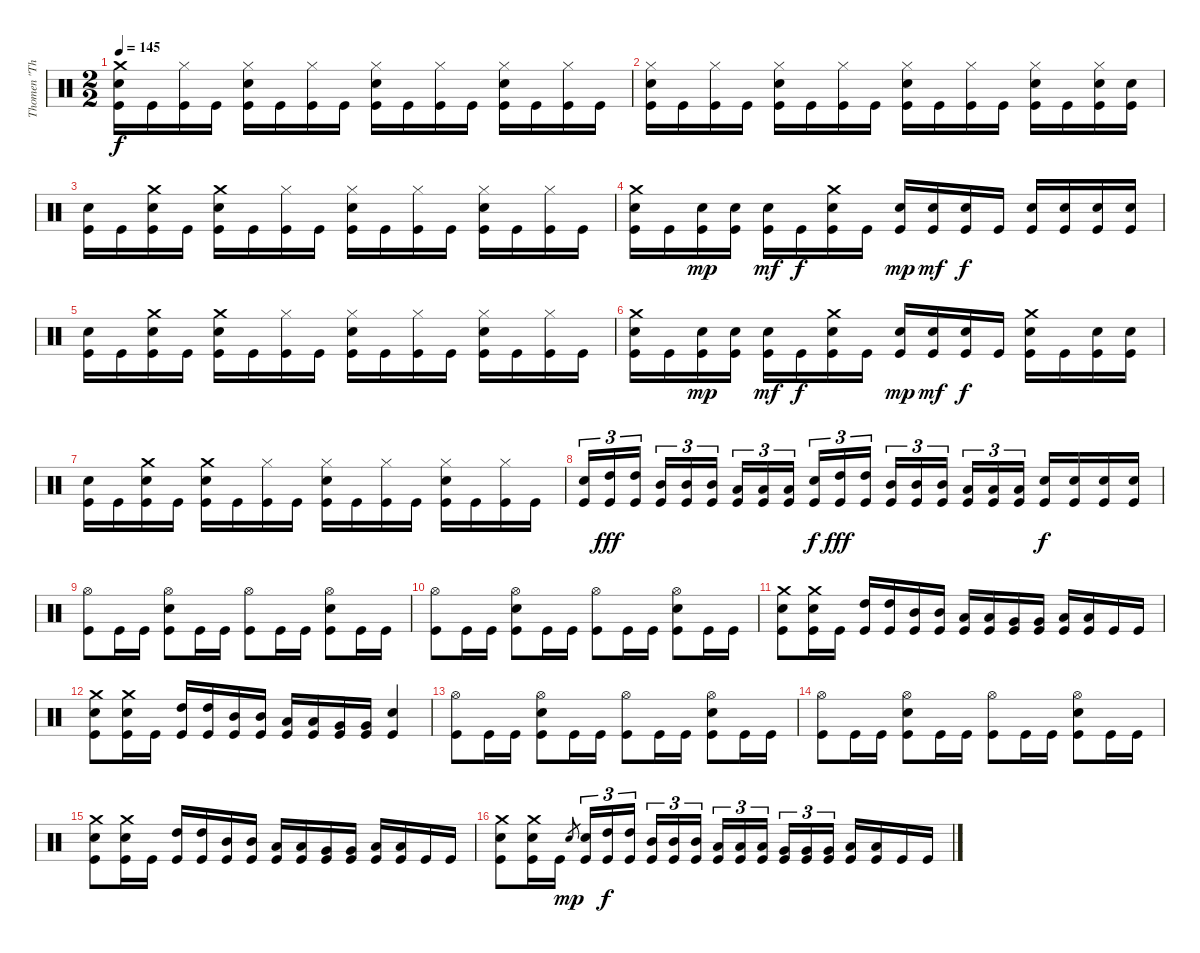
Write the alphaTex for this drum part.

\track ("Thomen \"The Omen\" Stauch" "Thomen \"Th") {instrument percussion}
\staff {score}
\articulation defaults
\ts (2 2)
\tempo 145
\clef neutral
\ks c
("Crash medium (hit)" "Snare (hit) 2" "Kick (hit)").16{dy f} "Kick (hit)".16 ("Hi-Hat (closed)" "Kick (hit)").16 "Kick (hit)".16 ("Hi-Hat (closed)" "Snare (hit) 2" "Kick (hit)").16 "Kick (hit)".16 ("Hi-Hat (closed)" "Kick (hit)").16 "Kick (hit)".16 ("Hi-Hat (closed)" "Snare (hit) 2" "Kick (hit)").16 "Kick (hit)".16 ("Hi-Hat (closed)" "Kick (hit)").16 "Kick (hit)".16 ("Hi-Hat (closed)" "Snare (hit) 2" "Kick (hit)").16 "Kick (hit)".16 ("Hi-Hat (closed)" "Kick (hit)").16 "Kick (hit)".16 |
("Hi-Hat (closed)" "Snare (hit) 2" "Kick (hit)").16 "Kick (hit)".16 ("Hi-Hat (closed)" "Kick (hit)").16 "Kick (hit)".16 ("Hi-Hat (closed)" "Snare (hit) 2" "Kick (hit)").16 "Kick (hit)".16 ("Hi-Hat (closed)" "Kick (hit)").16 "Kick (hit)".16 ("Hi-Hat (closed)" "Snare (hit) 2" "Kick (hit)").16 "Kick (hit)".16 ("Hi-Hat (closed)" "Kick (hit)").16 "Kick (hit)".16 ("Hi-Hat (closed)" "Snare (hit) 2" "Kick (hit)").16 "Kick (hit)".16 ("Hi-Hat (closed)" "Snare (hit) 2" "Kick (hit)").16 ("Snare (hit) 2" "Kick (hit)").16 |
("Snare (hit) 2" "Kick (hit)").16 "Kick (hit)".16 ("Crash medium (hit)" "Snare (hit) 2" "Kick (hit)").16 "Kick (hit)".16 ("Crash medium (hit)" "Snare (hit) 2" "Kick (hit)").16 "Kick (hit)".16 ("Hi-Hat (closed)" "Kick (hit)").16 "Kick (hit)".16 ("Hi-Hat (closed)" "Snare (hit) 2" "Kick (hit)").16 "Kick (hit)".16 ("Hi-Hat (closed)" "Kick (hit)").16 "Kick (hit)".16 ("Hi-Hat (closed)" "Snare (hit) 2" "Kick (hit)").16 "Kick (hit)".16 ("Hi-Hat (closed)" "Kick (hit)").16 "Kick (hit)".16 |
("Crash medium (hit)" "Snare (hit) 2" "Kick (hit)").16 "Kick (hit)".16 ("Snare (hit) 2" "Kick (hit)").16{dy mp} ("Snare (hit) 2" "Kick (hit)").16 ("Snare (hit) 2" "Kick (hit)").16{dy mf} "Kick (hit)".16{dy f} ("Crash medium (hit)" "Snare (hit) 2" "Kick (hit)").16 "Kick (hit)".16 ("Snare (hit) 2" "Kick (hit)").16{dy mp} ("Snare (hit) 2" "Kick (hit)").16{dy mf} ("Snare (hit) 2" "Kick (hit)").16{dy f} "Kick (hit)".16 ("Snare (hit) 2" "Kick (hit)").16 ("Snare (hit) 2" "Kick (hit)").16 ("Snare (hit) 2" "Kick (hit)").16 ("Snare (hit) 2" "Kick (hit)").16 |
("Snare (hit) 2" "Kick (hit)").16 "Kick (hit)".16 ("Crash medium (hit)" "Snare (hit) 2" "Kick (hit)").16 "Kick (hit)".16 ("Crash medium (hit)" "Snare (hit) 2" "Kick (hit)").16 "Kick (hit)".16 ("Hi-Hat (closed)" "Kick (hit)").16 "Kick (hit)".16 ("Hi-Hat (closed)" "Snare (hit) 2" "Kick (hit)").16 "Kick (hit)".16 ("Hi-Hat (closed)" "Kick (hit)").16 "Kick (hit)".16 ("Hi-Hat (closed)" "Snare (hit) 2" "Kick (hit)").16 "Kick (hit)".16 ("Hi-Hat (closed)" "Kick (hit)").16 "Kick (hit)".16 |
("Crash medium (hit)" "Snare (hit) 2" "Kick (hit)").16 "Kick (hit)".16 ("Snare (hit) 2" "Kick (hit)").16{dy mp} ("Snare (hit) 2" "Kick (hit)").16 ("Snare (hit) 2" "Kick (hit)").16{dy mf} "Kick (hit)".16{dy f} ("Crash medium (hit)" "Snare (hit) 2" "Kick (hit)").16 "Kick (hit)".16 ("Snare (hit) 2" "Kick (hit)").16{dy mp} ("Snare (hit) 2" "Kick (hit)").16{dy mf} ("Snare (hit) 2" "Kick (hit)").16{dy f} "Kick (hit)".16 ("Crash medium (hit)" "Snare (hit) 2" "Kick (hit)").16 "Kick (hit)".16 ("Snare (hit) 2" "Kick (hit)").16 ("Snare (hit) 2" "Kick (hit)").16 |
("Snare (hit) 2" "Kick (hit)").16 "Kick (hit)".16 ("Crash medium (hit)" "Snare (hit) 2" "Kick (hit)").16 "Kick (hit)".16 ("Crash medium (hit)" "Snare (hit) 2" "Kick (hit)").16 "Kick (hit)".16 ("Hi-Hat (closed)" "Kick (hit)").16 "Kick (hit)".16 ("Hi-Hat (closed)" "Snare (hit) 2" "Kick (hit)").16 "Kick (hit)".16 ("Hi-Hat (closed)" "Kick (hit)").16 "Kick (hit)".16 ("Hi-Hat (closed)" "Snare (hit) 2" "Kick (hit)").16 "Kick (hit)".16 ("Hi-Hat (closed)" "Kick (hit)").16 "Kick (hit)".16 |
("Snare (hit) 2" "Kick (hit)").16{tu (3 2)} ("High Tom (hit)" "Kick (hit)").16{tu (3 2) dy fff} ("High Tom (hit)" "Kick (hit)").16{tu (3 2)} ("Mid Tom (hit)" "Kick (hit)").16{tu (3 2)} ("Mid Tom (hit)" "Kick (hit)").16{tu (3 2)} ("Mid Tom (hit)" "Kick (hit)").16{tu (3 2)} ("Low Tom (hit)" "Kick (hit)").16{tu (3 2)} ("Low Tom (hit)" "Kick (hit)").16{tu (3 2)} ("Low Tom (hit)" "Kick (hit)").16{tu (3 2)} ("Snare (hit) 2" "Kick (hit)").16{tu (3 2) dy f} ("High Tom (hit)" "Kick (hit)").16{tu (3 2) dy fff} ("High Tom (hit)" "Kick (hit)").16{tu (3 2)} ("Mid Tom (hit)" "Kick (hit)").16{tu (3 2)} ("Mid Tom (hit)" "Kick (hit)").16{tu (3 2)} ("Mid Tom (hit)" "Kick (hit)").16{tu (3 2)} ("Low Tom (hit)" "Kick (hit)").16{tu (3 2)} ("Low Tom (hit)" "Kick (hit)").16{tu (3 2)} ("Low Tom (hit)" "Kick (hit)").16{tu (3 2)} ("Snare (hit) 2" "Kick (hit)").16{dy f} ("Snare (hit) 2" "Kick (hit)").16 ("Snare (hit) 2" "Kick (hit)").16 ("Snare (hit) 2" "Kick (hit)").16 |
("Hi-Hat (open)" "Kick (hit)").8 "Kick (hit)".16 "Kick (hit)".16 ("Hi-Hat (open)" "Snare (hit) 2" "Kick (hit)").8 "Kick (hit)".16 "Kick (hit)".16 ("Hi-Hat (open)" "Kick (hit)").8 "Kick (hit)".16 "Kick (hit)".16 ("Hi-Hat (open)" "Snare (hit) 2" "Kick (hit)").8 "Kick (hit)".16 "Kick (hit)".16 |
("Hi-Hat (open)" "Kick (hit)").8 "Kick (hit)".16 "Kick (hit)".16 ("Hi-Hat (open)" "Snare (hit) 2" "Kick (hit)").8 "Kick (hit)".16 "Kick (hit)".16 ("Hi-Hat (open)" "Kick (hit)").8 "Kick (hit)".16 "Kick (hit)".16 ("Hi-Hat (open)" "Snare (hit) 2" "Kick (hit)").8 "Kick (hit)".16 "Kick (hit)".16 |
("Crash medium (hit)" "Snare (hit) 2" "Kick (hit)").8 ("Crash medium (hit)" "Snare (hit) 2" "Kick (hit)").16 "Kick (hit)".16 ("High Tom (hit)" "Kick (hit)").16 ("High Tom (hit)" "Kick (hit)").16 ("Mid Tom (hit)" "Kick (hit)").16 ("Mid Tom (hit)" "Kick (hit)").16 ("Low Tom (hit)" "Kick (hit)").16 ("Low Tom (hit)" "Kick (hit)").16 ("Very Low Tom (hit)" "Kick (hit)").16 ("Very Low Tom (hit)" "Kick (hit)").16 ("Low Floor Tom (hit)" "Kick (hit)").16 ("Low Floor Tom (hit)" "Kick (hit)").16 "Kick (hit)".16 "Kick (hit)".16 |
("Crash medium (hit)" "Snare (hit) 2" "Kick (hit)").8 ("Crash medium (hit)" "Snare (hit) 2" "Kick (hit)").16 "Kick (hit)".16 ("High Tom (hit)" "Kick (hit)").16 ("High Tom (hit)" "Kick (hit)").16 ("Mid Tom (hit)" "Kick (hit)").16 ("Mid Tom (hit)" "Kick (hit)").16 ("Low Tom (hit)" "Kick (hit)").16 ("Low Tom (hit)" "Kick (hit)").16 ("Very Low Tom (hit)" "Kick (hit)").16 ("Very Low Tom (hit)" "Kick (hit)").16 ("Snare (hit) 2" "Kick (hit)").4 |
("Hi-Hat (open)" "Kick (hit)").8 "Kick (hit)".16 "Kick (hit)".16 ("Hi-Hat (open)" "Snare (hit) 2" "Kick (hit)").8 "Kick (hit)".16 "Kick (hit)".16 ("Hi-Hat (open)" "Kick (hit)").8 "Kick (hit)".16 "Kick (hit)".16 ("Hi-Hat (open)" "Snare (hit) 2" "Kick (hit)").8 "Kick (hit)".16 "Kick (hit)".16 |
("Hi-Hat (open)" "Kick (hit)").8 "Kick (hit)".16 "Kick (hit)".16 ("Hi-Hat (open)" "Snare (hit) 2" "Kick (hit)").8 "Kick (hit)".16 "Kick (hit)".16 ("Hi-Hat (open)" "Kick (hit)").8 "Kick (hit)".16 "Kick (hit)".16 ("Hi-Hat (open)" "Snare (hit) 2" "Kick (hit)").8 "Kick (hit)".16 "Kick (hit)".16 |
("Crash medium (hit)" "Snare (hit) 2" "Kick (hit)").8 ("Crash medium (hit)" "Snare (hit) 2" "Kick (hit)").16 "Kick (hit)".16 ("High Tom (hit)" "Kick (hit)").16 ("High Tom (hit)" "Kick (hit)").16 ("Mid Tom (hit)" "Kick (hit)").16 ("Mid Tom (hit)" "Kick (hit)").16 ("Low Tom (hit)" "Kick (hit)").16 ("Low Tom (hit)" "Kick (hit)").16 ("Very Low Tom (hit)" "Kick (hit)").16 ("Very Low Tom (hit)" "Kick (hit)").16 ("Low Floor Tom (hit)" "Kick (hit)").16 ("Low Floor Tom (hit)" "Kick (hit)").16 "Kick (hit)".16 "Kick (hit)".16 |
("Crash medium (hit)" "Snare (hit) 2" "Kick (hit)").8 ("Crash medium (hit)" "Snare (hit) 2" "Kick (hit)").16 "Kick (hit)".16 "Snare (hit) 2".8{gr dy mp} ("Snare (hit) 2" "Kick (hit)").16{tu (3 2)} ("High Tom (hit)" "Kick (hit)").16{tu (3 2) dy f} ("High Tom (hit)" "Kick (hit)").16{tu (3 2)} ("Mid Tom (hit)" "Kick (hit)").16{tu (3 2)} ("Mid Tom (hit)" "Kick (hit)").16{tu (3 2)} ("Mid Tom (hit)" "Kick (hit)").16{tu (3 2)} ("Low Tom (hit)" "Kick (hit)").16{tu (3 2)} ("Low Tom (hit)" "Kick (hit)").16{tu (3 2)} ("Low Tom (hit)" "Kick (hit)").16{tu (3 2)} ("Very Low Tom (hit)" "Kick (hit)").16{tu (3 2)} ("Very Low Tom (hit)" "Kick (hit)").16{tu (3 2)} ("Very Low Tom (hit)" "Kick (hit)").16{tu (3 2)} ("Low Floor Tom (hit)" "Kick (hit)").16 ("Low Floor Tom (hit)" "Kick (hit)").16 "Kick (hit)".16 "Kick (hit)".16
